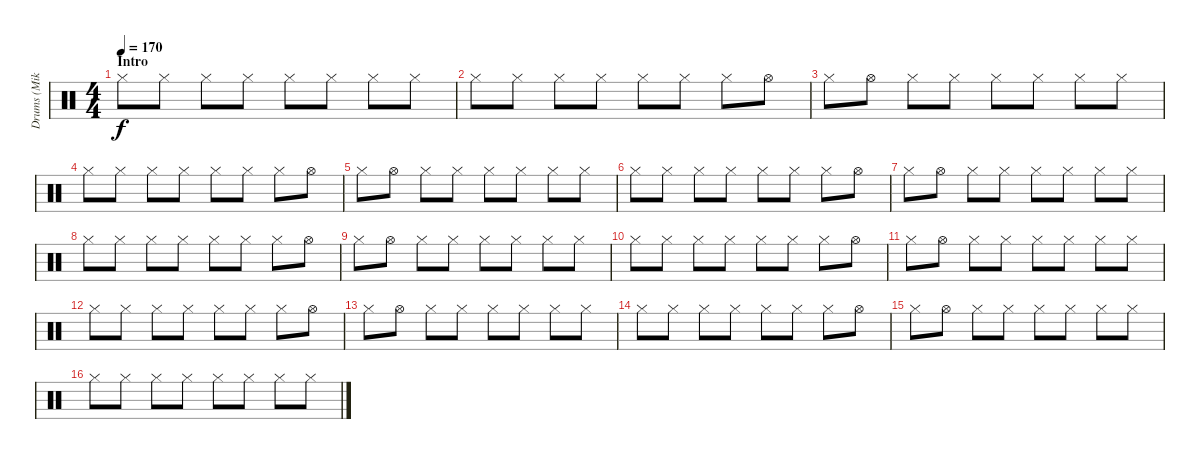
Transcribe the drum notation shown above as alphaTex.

\track ("Drums (Mike C)" "Drums (Mik") {instrument percussion}
\staff {score}
\articulation defaults
\ts (4 4)
\section ("" "Intro")
\tempo 170
\clef neutral
\ks c "Hi-Hat (closed)".8{dy f} "Hi-Hat (closed)".8 "Hi-Hat (closed)".8 "Hi-Hat (closed)".8 "Hi-Hat (closed)".8 "Hi-Hat (closed)".8 "Hi-Hat (closed)".8 "Hi-Hat (closed)".8
|
"Hi-Hat (closed)".8 "Hi-Hat (closed)".8 "Hi-Hat (closed)".8 "Hi-Hat (closed)".8 "Hi-Hat (closed)".8 "Hi-Hat (closed)".8 "Hi-Hat (closed)".8 "Hi-Hat (open)".8 |
"Hi-Hat (closed)".8 "Hi-Hat (open)".8 "Hi-Hat (closed)".8 "Hi-Hat (closed)".8 "Hi-Hat (closed)".8 "Hi-Hat (closed)".8 "Hi-Hat (closed)".8 "Hi-Hat (closed)".8 |
"Hi-Hat (closed)".8 "Hi-Hat (closed)".8 "Hi-Hat (closed)".8 "Hi-Hat (closed)".8 "Hi-Hat (closed)".8 "Hi-Hat (closed)".8 "Hi-Hat (closed)".8 "Hi-Hat (open)".8 |
"Hi-Hat (closed)".8 "Hi-Hat (open)".8 "Hi-Hat (closed)".8 "Hi-Hat (closed)".8 "Hi-Hat (closed)".8 "Hi-Hat (closed)".8 "Hi-Hat (closed)".8 "Hi-Hat (closed)".8 |
"Hi-Hat (closed)".8 "Hi-Hat (closed)".8 "Hi-Hat (closed)".8 "Hi-Hat (closed)".8 "Hi-Hat (closed)".8 "Hi-Hat (closed)".8 "Hi-Hat (closed)".8 "Hi-Hat (open)".8 |
"Hi-Hat (closed)".8 "Hi-Hat (open)".8 "Hi-Hat (closed)".8 "Hi-Hat (closed)".8 "Hi-Hat (closed)".8 "Hi-Hat (closed)".8 "Hi-Hat (closed)".8 "Hi-Hat (closed)".8 |
"Hi-Hat (closed)".8 "Hi-Hat (closed)".8 "Hi-Hat (closed)".8 "Hi-Hat (closed)".8 "Hi-Hat (closed)".8 "Hi-Hat (closed)".8 "Hi-Hat (closed)".8 "Hi-Hat (open)".8 |
"Hi-Hat (closed)".8 "Hi-Hat (open)".8 "Hi-Hat (closed)".8 "Hi-Hat (closed)".8 "Hi-Hat (closed)".8 "Hi-Hat (closed)".8 "Hi-Hat (closed)".8 "Hi-Hat (closed)".8 |
"Hi-Hat (closed)".8 "Hi-Hat (closed)".8 "Hi-Hat (closed)".8 "Hi-Hat (closed)".8 "Hi-Hat (closed)".8 "Hi-Hat (closed)".8 "Hi-Hat (closed)".8 "Hi-Hat (open)".8 |
"Hi-Hat (closed)".8 "Hi-Hat (open)".8 "Hi-Hat (closed)".8 "Hi-Hat (closed)".8 "Hi-Hat (closed)".8 "Hi-Hat (closed)".8 "Hi-Hat (closed)".8 "Hi-Hat (closed)".8 |
"Hi-Hat (closed)".8 "Hi-Hat (closed)".8 "Hi-Hat (closed)".8 "Hi-Hat (closed)".8 "Hi-Hat (closed)".8 "Hi-Hat (closed)".8 "Hi-Hat (closed)".8 "Hi-Hat (open)".8 |
"Hi-Hat (closed)".8 "Hi-Hat (open)".8 "Hi-Hat (closed)".8 "Hi-Hat (closed)".8 "Hi-Hat (closed)".8 "Hi-Hat (closed)".8 "Hi-Hat (closed)".8 "Hi-Hat (closed)".8 |
"Hi-Hat (closed)".8 "Hi-Hat (closed)".8 "Hi-Hat (closed)".8 "Hi-Hat (closed)".8 "Hi-Hat (closed)".8 "Hi-Hat (closed)".8 "Hi-Hat (closed)".8 "Hi-Hat (open)".8 |
"Hi-Hat (closed)".8 "Hi-Hat (open)".8 "Hi-Hat (closed)".8 "Hi-Hat (closed)".8 "Hi-Hat (closed)".8 "Hi-Hat (closed)".8 "Hi-Hat (closed)".8 "Hi-Hat (closed)".8 |
"Hi-Hat (closed)".8 "Hi-Hat (closed)".8 "Hi-Hat (closed)".8 "Hi-Hat (closed)".8 "Hi-Hat (closed)".8 "Hi-Hat (closed)".8 "Hi-Hat (closed)".8 "Hi-Hat (closed)".8
